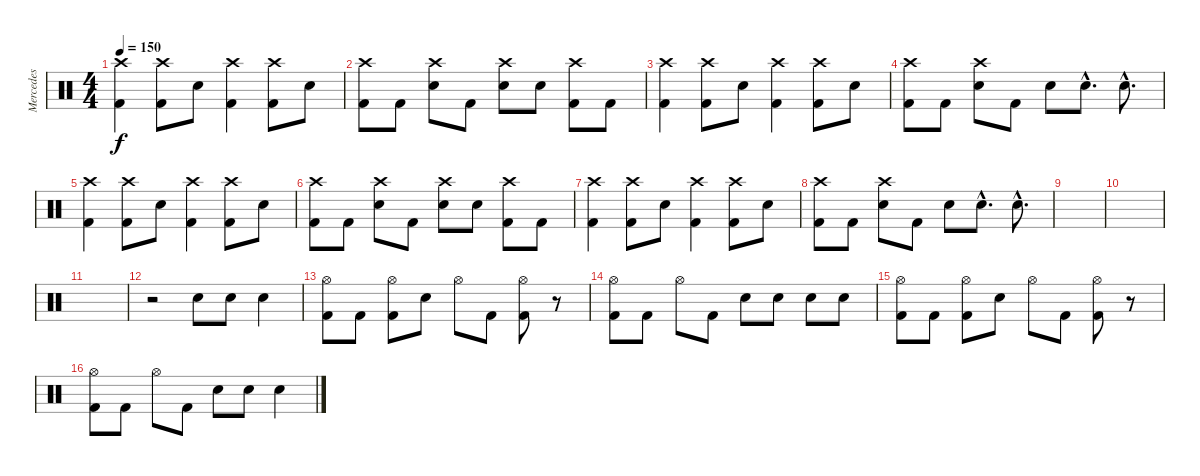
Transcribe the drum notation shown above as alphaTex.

\track ("Mercedes" "Mercedes") {instrument percussion}
\staff {score}
\articulation defaults
\ts (4 4)
\tempo 150
\clef neutral
\ks c
("Kick (hit) 2" "Crash high (hit)").4{dy f} ("Kick (hit) 2" "Crash high (hit)").8 "Snare (hit) 2".8 ("Kick (hit) 2" "Crash high (hit)").4 ("Kick (hit) 2" "Crash high (hit)").8 "Snare (hit) 2".8 |
("Kick (hit) 2" "Crash high (hit)").8 "Kick (hit) 2".8 ("Snare (hit) 2" "Crash high (hit)").8 "Kick (hit) 2".8 ("Snare (hit) 2" "Crash high (hit)").8 "Snare (hit) 2".8 ("Kick (hit) 2" "Crash high (hit)").8 "Kick (hit) 2".8 |
("Kick (hit) 2" "Crash high (hit)").4 ("Kick (hit) 2" "Crash high (hit)").8 "Snare (hit) 2".8 ("Kick (hit) 2" "Crash high (hit)").4 ("Kick (hit) 2" "Crash high (hit)").8 "Snare (hit) 2".8 |
("Kick (hit) 2" "Crash high (hit)").8 "Kick (hit) 2".8 ("Snare (hit) 2" "Crash high (hit)").8 "Kick (hit) 2".8 "Snare (hit) 2".8 "Snare (hit) 2"{hac}.8{d} "Snare (hit) 2"{hac}.8{d} |
("Kick (hit) 2" "Crash high (hit)").4 ("Kick (hit) 2" "Crash high (hit)").8 "Snare (hit) 2".8 ("Kick (hit) 2" "Crash high (hit)").4 ("Kick (hit) 2" "Crash high (hit)").8 "Snare (hit) 2".8 |
("Kick (hit) 2" "Crash high (hit)").8 "Kick (hit) 2".8 ("Snare (hit) 2" "Crash high (hit)").8 "Kick (hit) 2".8 ("Snare (hit) 2" "Crash high (hit)").8 "Snare (hit) 2".8 ("Kick (hit) 2" "Crash high (hit)").8 "Kick (hit) 2".8 |
("Kick (hit) 2" "Crash high (hit)").4 ("Kick (hit) 2" "Crash high (hit)").8 "Snare (hit) 2".8 ("Kick (hit) 2" "Crash high (hit)").4 ("Kick (hit) 2" "Crash high (hit)").8 "Snare (hit) 2".8 |
("Kick (hit) 2" "Crash high (hit)").8 "Kick (hit) 2".8 ("Snare (hit) 2" "Crash high (hit)").8 "Kick (hit) 2".8 "Snare (hit) 2".8 "Snare (hit) 2"{hac}.8{d} "Snare (hit) 2"{hac}.8{d} |
|
|
|
r.2 "Snare (hit) 2".8 "Snare (hit) 2".8 "Snare (hit) 2".4 |
("Kick (hit) 2" "Hi-Hat (open)").8 "Kick (hit) 2".8 ("Kick (hit) 2" "Hi-Hat (open)").8 "Snare (hit) 2".8 "Hi-Hat (open)".8 "Kick (hit) 2".8 ("Kick (hit) 2" "Hi-Hat (open)").8 r.8 |
("Kick (hit) 2" "Hi-Hat (open)").8 "Kick (hit) 2".8 "Hi-Hat (open)".8 "Kick (hit) 2".8 "Snare (hit) 2".8 "Snare (hit) 2".8 "Snare (hit) 2".8 "Snare (hit) 2".8 |
("Kick (hit) 2" "Hi-Hat (open)").8 "Kick (hit) 2".8 ("Kick (hit) 2" "Hi-Hat (open)").8 "Snare (hit) 2".8 "Hi-Hat (open)".8 "Kick (hit) 2".8 ("Kick (hit) 2" "Hi-Hat (open)").8 r.8 |
("Kick (hit) 2" "Hi-Hat (open)").8 "Kick (hit) 2".8 "Hi-Hat (open)".8 "Kick (hit) 2".8 "Snare (hit) 2".8 "Snare (hit) 2".8 "Snare (hit) 2".4
